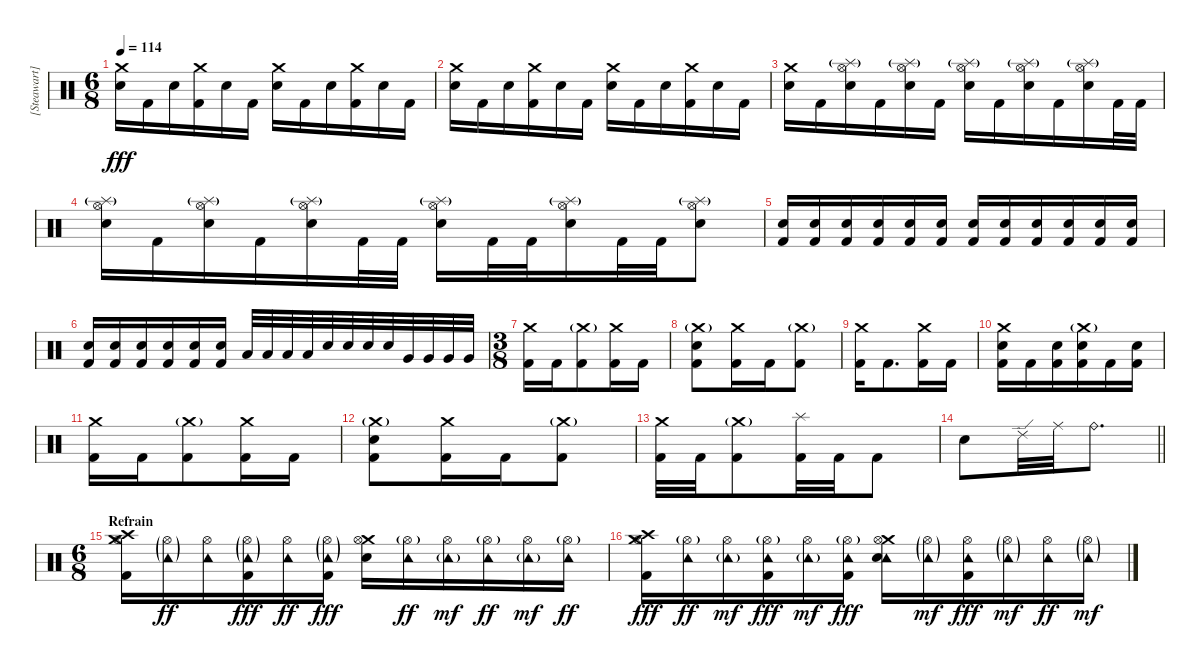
\track ("[Steawart] Drums" "[Steawart]") {solo instrument percussion}
\staff {score}
\articulation defaults
\ts (6 8)
\tempo 114
\clef neutral
\ks c
("Crash medium (hit)" "Electric Snare (hit)").16{dy fff} "Kick (hit) 2".16 "Electric Snare (hit)".16 ("Crash medium (hit)" "Kick (hit) 2").16 "Electric Snare (hit)".16 "Kick (hit) 2".16 ("Crash medium (hit)" "Electric Snare (hit)").16 "Kick (hit) 2".16 "Electric Snare (hit)".16 ("Crash medium (hit)" "Kick (hit) 2").16 "Electric Snare (hit)".16 "Kick (hit) 2".16 |
("Crash medium (hit)" "Electric Snare (hit)").16 "Kick (hit) 2".16 "Electric Snare (hit)".16 ("Crash medium (hit)" "Kick (hit) 2").16 "Electric Snare (hit)".16 "Kick (hit) 2".16 ("Crash medium (hit)" "Electric Snare (hit)").16 "Kick (hit) 2".16 "Electric Snare (hit)".16 ("Crash medium (hit)" "Kick (hit) 2").16 "Electric Snare (hit)".16 "Kick (hit) 2".16 |
("Crash medium (hit)" "Electric Snare (hit)").16 "Kick (hit) 2".16 ("Hi-Hat (open)" "Splash (hit)"{g} "Electric Snare (hit)").16 "Kick (hit) 2".16 ("Hi-Hat (open)" "Splash (hit)"{g} "Electric Snare (hit)").16 "Kick (hit) 2".16 ("Hi-Hat (open)" "Splash (hit)"{g} "Electric Snare (hit)").16 "Kick (hit) 2".16 ("Hi-Hat (open)" "Splash (hit)"{g} "Electric Snare (hit)").16 "Kick (hit) 2".16 ("Hi-Hat (open)" "Splash (hit)"{g} "Electric Snare (hit)").16 "Kick (hit) 2".32 "Kick (hit) 2".32 |
("Hi-Hat (open)" "Splash (hit)"{g} "Electric Snare (hit)").16 "Kick (hit) 2".16 ("Hi-Hat (open)" "Splash (hit)"{g} "Electric Snare (hit)").16 "Kick (hit) 2".16 ("Hi-Hat (open)" "Splash (hit)"{g} "Electric Snare (hit)").16 "Kick (hit) 2".32 "Kick (hit) 2".32 ("Hi-Hat (open)" "Splash (hit)"{g} "Electric Snare (hit)").16 "Kick (hit) 2".32 "Kick (hit) 2".32 ("Hi-Hat (open)" "Splash (hit)"{g} "Electric Snare (hit)").16 "Kick (hit) 2".32 "Kick (hit) 2".32 ("Hi-Hat (open)" "Splash (hit)"{g} "Electric Snare (hit)").8 |
("Electric Snare (hit)" "Kick (hit) 2").16 ("Electric Snare (hit)" "Kick (hit) 2").16 ("Electric Snare (hit)" "Kick (hit) 2").16 ("Electric Snare (hit)" "Kick (hit) 2").16 ("Electric Snare (hit)" "Kick (hit) 2").16 ("Electric Snare (hit)" "Kick (hit) 2").16 ("Electric Snare (hit)" "Kick (hit) 2").16 ("Electric Snare (hit)" "Kick (hit) 2").16 ("Electric Snare (hit)" "Kick (hit) 2").16 ("Electric Snare (hit)" "Kick (hit) 2").16 ("Electric Snare (hit)" "Kick (hit) 2").16 ("Electric Snare (hit)" "Kick (hit) 2").16 |
("Electric Snare (hit)" "Kick (hit) 2").16 ("Electric Snare (hit)" "Kick (hit) 2").16 ("Electric Snare (hit)" "Kick (hit) 2").16 ("Electric Snare (hit)" "Kick (hit) 2").16 ("Electric Snare (hit)" "Kick (hit) 2").16 ("Electric Snare (hit)" "Kick (hit) 2").16 "Low Tom (hit)".32 "Low Tom (hit)".32 "Low Tom (hit)".32 "Low Tom (hit)".32 "Electric Snare (hit)".32 "Electric Snare (hit)".32 "Electric Snare (hit)".32 "Electric Snare (hit)".32 "Very Low Tom (hit)".32 "Very Low Tom (hit)".32 "Very Low Tom (hit)".32 "Very Low Tom (hit)".32 |
\ts (3 8)
("Crash medium (hit)" "Kick (hit) 2").16 "Kick (hit) 2".16 ("Crash medium (hit)"{g} "Kick (hit) 2").8 ("Crash medium (hit)" "Kick (hit) 2").16 "Kick (hit) 2".16 |
("Crash medium (hit)"{g} "Electric Snare (hit)" "Kick (hit) 2").8 ("Crash medium (hit)" "Kick (hit) 2").16 "Kick (hit) 2".16 ("Crash medium (hit)"{g} "Kick (hit) 2").8 |
("Crash medium (hit)" "Kick (hit) 2").16 "Kick (hit) 2".8{d} ("Crash medium (hit)" "Kick (hit) 2").16 "Kick (hit) 2".16 |
("Crash medium (hit)" "Electric Snare (hit)" "Kick (hit) 2").16 "Kick (hit) 2".16 ("Electric Snare (hit)" "Kick (hit) 2").16 ("Crash medium (hit)"{g} "Electric Snare (hit)" "Kick (hit) 2").16 "Kick (hit) 2".16 ("Electric Snare (hit)" "Kick (hit) 2").16 |
("Crash medium (hit)" "Kick (hit) 2").16 "Kick (hit) 2".16 ("Crash medium (hit)"{g} "Kick (hit) 2").8 ("Crash medium (hit)" "Kick (hit) 2").16 "Kick (hit) 2".16 |
("Crash medium (hit)"{g} "Electric Snare (hit)" "Kick (hit) 2").8 ("Crash medium (hit)" "Kick (hit) 2").16 "Kick (hit) 2".16 ("Crash medium (hit)"{g} "Kick (hit) 2").8 |
("Crash medium (hit)" "Kick (hit) 2").32 "Kick (hit) 2".32 ("Crash medium (hit)"{g} "Kick (hit) 2").8 ("Splash (hit)" "Kick (hit) 2").32 "Kick (hit) 2".32 "Kick (hit) 2".8 |
\barLineRight lightlight "Electric Snare (hit)".8 "Ride (edge) 2".32 "Ride (middle)".32 "Ride (bell)".8{d}
|
\ts (6 8)
\section ("" "Refrain ")
("Crash medium (hit)" "Hi-Hat (open)" "Crash high (hit)" "Kick (hit) 2").16 ("Hi-Hat (open)"{g} "Tambourine (hit)"{g}).16{dy ff} ("Hi-Hat (open)" "Tambourine (hit)").16 ("Hi-Hat (open)"{g} "Tambourine (hit)"{g} "Kick (hit) 2").16{dy fff} ("Hi-Hat (open)" "Tambourine (hit)").16{dy ff} ("Hi-Hat (open)"{g} "Tambourine (hit)"{g} "Kick (hit) 2").16{dy fff} ("Crash medium (hit)" "Hi-Hat (open)" "Electric Snare (hit)").16 ("Hi-Hat (open)"{g} "Tambourine (hit)").16{dy ff} ("Hi-Hat (open)" "Tambourine (hit)"{g}).16{dy mf} ("Hi-Hat (open)"{g} "Tambourine (hit)").16{dy ff} ("Hi-Hat (open)" "Tambourine (hit)"{g}).16{dy mf} ("Hi-Hat (open)"{g} "Tambourine (hit)").16{dy ff} |
("Crash medium (hit)" "Hi-Hat (open)" "Crash high (hit)" "Kick (hit) 2").16{dy fff} ("Hi-Hat (open)"{g} "Tambourine (hit)").16{dy ff} ("Hi-Hat (open)" "Tambourine (hit)"{g}).16{dy mf} ("Hi-Hat (open)"{g} "Tambourine (hit)" "Kick (hit) 2").16{dy fff} ("Hi-Hat (open)" "Tambourine (hit)"{g}).16{dy mf} ("Hi-Hat (open)"{g} "Tambourine (hit)" "Kick (hit) 2").16{dy fff} ("Crash medium (hit)" "Hi-Hat (open)" "Tambourine (hit)" "Electric Snare (hit)").16 ("Hi-Hat (open)"{g} "Tambourine (hit)"{g}).16{dy mf} ("Hi-Hat (open)" "Tambourine (hit)" "Kick (hit) 2").16{dy fff} ("Hi-Hat (open)"{g} "Tambourine (hit)"{g}).16{dy mf} ("Hi-Hat (open)" "Tambourine (hit)").16{dy ff} ("Hi-Hat (open)"{g} "Tambourine (hit)"{g}).16{dy mf}
